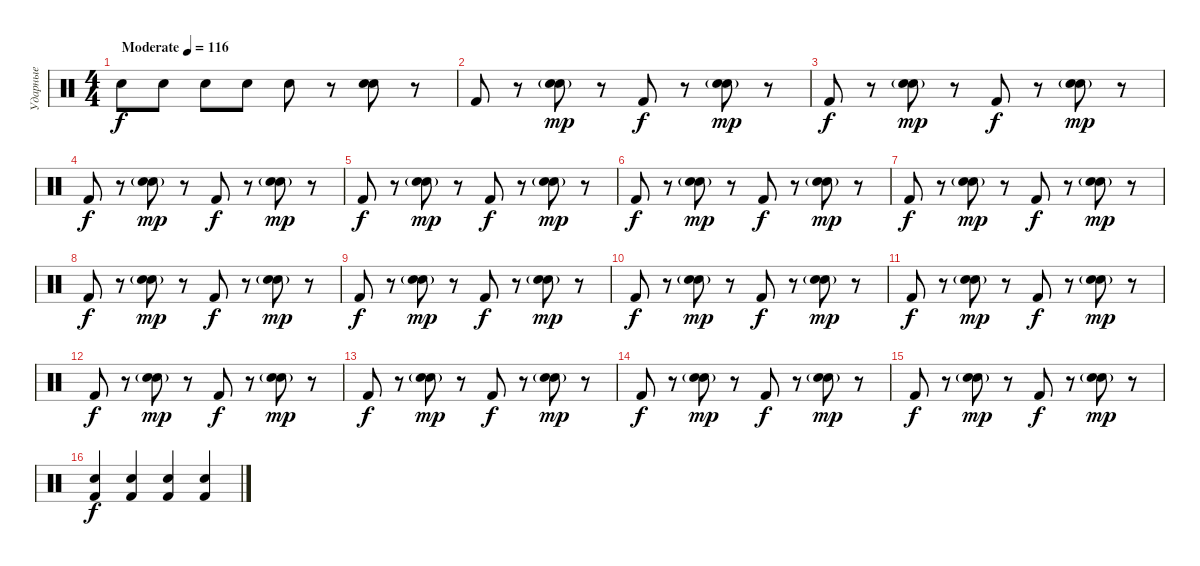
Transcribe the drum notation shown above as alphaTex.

\track ("Ударные" "Ударные") {instrument percussion}
\staff {score}
\articulation defaults
\ts (4 4)
\tempo (116 "Moderate")
\clef neutral
\ks c "Snare (hit) 2".8{dy f} "Snare (hit) 2".8 "Snare (hit) 2".8 "Snare (hit) 2".8 "Snare (hit) 2".8
r.8 ("Hand Clap (hit)" "Snare (hit) 2").8 r.8 |
"Kick (hit) 2".8 r.8 ("Hand Clap (hit)"{g} "Snare (hit) 2").8{dy mp} r.8 "Kick (hit) 2".8{dy f} r.8 ("Hand Clap (hit)"{g} "Snare (hit) 2").8{dy mp} r.8 |
"Kick (hit) 2".8{dy f} r.8 ("Hand Clap (hit)"{g} "Snare (hit) 2").8{dy mp} r.8 "Kick (hit) 2".8{dy f} r.8 ("Hand Clap (hit)"{g} "Snare (hit) 2").8{dy mp} r.8 |
"Kick (hit) 2".8{dy f} r.8 ("Hand Clap (hit)"{g} "Snare (hit) 2").8{dy mp} r.8 "Kick (hit) 2".8{dy f} r.8 ("Hand Clap (hit)"{g} "Snare (hit) 2").8{dy mp} r.8 |
"Kick (hit) 2".8{dy f} r.8 ("Hand Clap (hit)"{g} "Snare (hit) 2").8{dy mp} r.8 "Kick (hit) 2".8{dy f} r.8 ("Hand Clap (hit)"{g} "Snare (hit) 2").8{dy mp} r.8 |
"Kick (hit) 2".8{dy f} r.8 ("Hand Clap (hit)"{g} "Snare (hit) 2").8{dy mp} r.8 "Kick (hit) 2".8{dy f} r.8 ("Hand Clap (hit)"{g} "Snare (hit) 2").8{dy mp} r.8 |
"Kick (hit) 2".8{dy f} r.8 ("Hand Clap (hit)"{g} "Snare (hit) 2").8{dy mp} r.8 "Kick (hit) 2".8{dy f} r.8 ("Hand Clap (hit)"{g} "Snare (hit) 2").8{dy mp} r.8 |
"Kick (hit) 2".8{dy f} r.8 ("Hand Clap (hit)"{g} "Snare (hit) 2").8{dy mp} r.8 "Kick (hit) 2".8{dy f} r.8 ("Hand Clap (hit)"{g} "Snare (hit) 2").8{dy mp} r.8 |
"Kick (hit) 2".8{dy f} r.8 ("Hand Clap (hit)"{g} "Snare (hit) 2").8{dy mp} r.8 "Kick (hit) 2".8{dy f} r.8 ("Hand Clap (hit)"{g} "Snare (hit) 2").8{dy mp} r.8 |
"Kick (hit) 2".8{dy f} r.8 ("Hand Clap (hit)"{g} "Snare (hit) 2").8{dy mp} r.8 "Kick (hit) 2".8{dy f} r.8 ("Hand Clap (hit)"{g} "Snare (hit) 2").8{dy mp} r.8 |
"Kick (hit) 2".8{dy f} r.8 ("Hand Clap (hit)"{g} "Snare (hit) 2").8{dy mp} r.8 "Kick (hit) 2".8{dy f} r.8 ("Hand Clap (hit)"{g} "Snare (hit) 2").8{dy mp} r.8 |
"Kick (hit) 2".8{dy f} r.8 ("Hand Clap (hit)"{g} "Snare (hit) 2").8{dy mp} r.8 "Kick (hit) 2".8{dy f} r.8 ("Hand Clap (hit)"{g} "Snare (hit) 2").8{dy mp} r.8 |
"Kick (hit) 2".8{dy f} r.8 ("Hand Clap (hit)"{g} "Snare (hit) 2").8{dy mp} r.8 "Kick (hit) 2".8{dy f} r.8 ("Hand Clap (hit)"{g} "Snare (hit) 2").8{dy mp} r.8 |
"Kick (hit) 2".8{dy f} r.8 ("Hand Clap (hit)"{g} "Snare (hit) 2").8{dy mp} r.8 "Kick (hit) 2".8{dy f} r.8 ("Hand Clap (hit)"{g} "Snare (hit) 2").8{dy mp} r.8 |
"Kick (hit) 2".8{dy f} r.8 ("Hand Clap (hit)"{g} "Snare (hit) 2").8{dy mp} r.8 "Kick (hit) 2".8{dy f} r.8 ("Hand Clap (hit)"{g} "Snare (hit) 2").8{dy mp} r.8 |
("Snare (hit) 2" "Kick (hit) 2").4{dy f} ("Snare (hit) 2" "Kick (hit) 2").4 ("Snare (hit) 2" "Kick (hit) 2").4 ("Snare (hit) 2" "Kick (hit) 2").4
